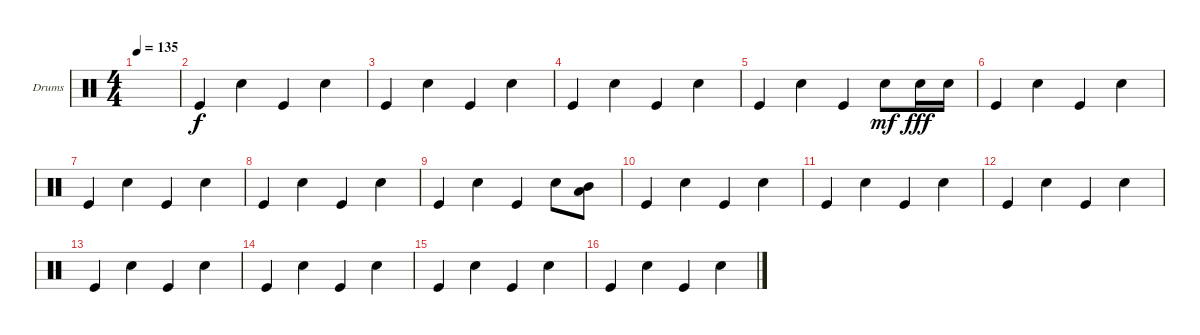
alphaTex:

\defaultSystemsLayout 4
\bracketExtendMode groupsimilarinstruments
\firstSystemTrackNameOrientation horizontal
\otherSystemsTrackNameOrientation horizontal
\track ("Helders" "Drums") {instrument percussion}
\staff {score}
\articulation defaults
\ts (4 4)
\tempo 135
\clef neutral
\ks c
|
"Kick (hit)".4 "Snare (hit) 2".4 "Kick (hit)".4 "Snare (hit) 2".4 |
"Kick (hit)".4 "Snare (hit) 2".4 "Kick (hit)".4 "Snare (hit) 2".4 |
"Kick (hit)".4 "Snare (hit) 2".4 "Kick (hit)".4 "Snare (hit) 2".4 |
"Kick (hit)".4 "Snare (hit) 2".4 "Kick (hit)".4 "Snare (hit) 2".8{dy mf} "Snare (hit) 2".16{dy fff} "Snare (hit) 2".16 |
"Kick (hit)".4 "Snare (hit) 2".4 "Kick (hit)".4 "Snare (hit) 2".4 |
"Kick (hit)".4 "Snare (hit) 2".4 "Kick (hit)".4 "Snare (hit) 2".4 |
"Kick (hit)".4 "Snare (hit) 2".4 "Kick (hit)".4 "Snare (hit) 2".4 |
"Kick (hit)".4 "Snare (hit) 2".4 "Kick (hit)".4 "Snare (hit) 2".8 ("Mid Tom (hit)" "Low Tom (hit)").8 |
"Kick (hit)".4 "Snare (hit) 2".4 "Kick (hit)".4 "Snare (hit) 2".4 |
"Kick (hit)".4 "Snare (hit) 2".4 "Kick (hit)".4 "Snare (hit) 2".4 |
"Kick (hit)".4 "Snare (hit) 2".4 "Kick (hit)".4 "Snare (hit) 2".4 |
"Kick (hit)".4 "Snare (hit) 2".4 "Kick (hit)".4 "Snare (hit) 2".4 |
"Kick (hit)".4 "Snare (hit) 2".4 "Kick (hit)".4 "Snare (hit) 2".4 |
"Kick (hit)".4 "Snare (hit) 2".4 "Kick (hit)".4 "Snare (hit) 2".4 |
"Kick (hit)".4 "Snare (hit) 2".4 "Kick (hit)".4 "Snare (hit) 2".4
